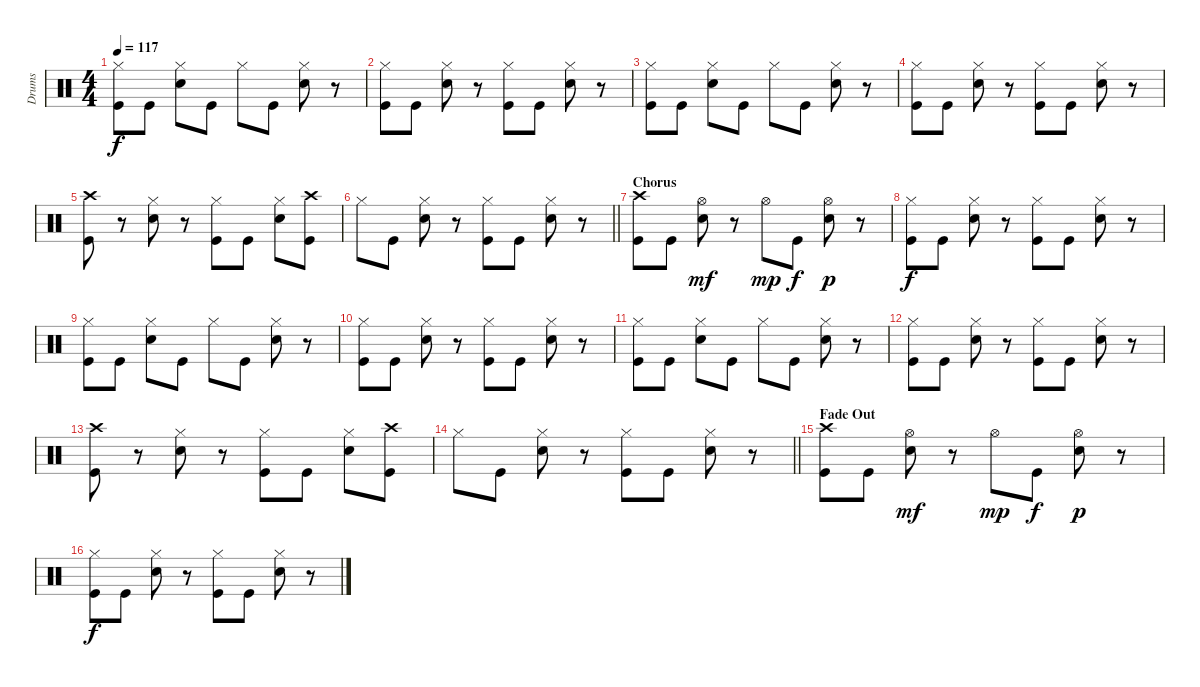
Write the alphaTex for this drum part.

\track ("Drums" "Drums") {instrument percussion}
\staff {score}
\articulation defaults
\ts (4 4)
\tempo 117
\clef neutral
\ks c
("Hi-Hat (closed)" "Kick (hit)").8{dy f} "Kick (hit)".8 ("Hi-Hat (closed)" "Snare (hit) 2").8 "Kick (hit)".8 "Hi-Hat (closed)".8 "Kick (hit)".8 ("Hi-Hat (closed)" "Snare (hit) 2").8 r.8 |
("Hi-Hat (closed)" "Kick (hit)").8 "Kick (hit)".8 ("Hi-Hat (closed)" "Snare (hit) 2").8 r.8 ("Hi-Hat (closed)" "Kick (hit)").8 "Kick (hit)".8 ("Hi-Hat (closed)" "Snare (hit) 2").8 r.8 |
("Hi-Hat (closed)" "Kick (hit)").8 "Kick (hit)".8 ("Hi-Hat (closed)" "Snare (hit) 2").8 "Kick (hit)".8 "Hi-Hat (closed)".8 "Kick (hit)".8 ("Hi-Hat (closed)" "Snare (hit) 2").8 r.8 |
("Hi-Hat (closed)" "Kick (hit)").8 "Kick (hit)".8 ("Hi-Hat (closed)" "Snare (hit) 2").8 r.8 ("Hi-Hat (closed)" "Kick (hit)").8 "Kick (hit)".8 ("Hi-Hat (closed)" "Snare (hit) 2").8 r.8 |
("Crash high (hit)" "Kick (hit)").8 r.8 ("Hi-Hat (closed)" "Snare (hit) 2").8 r.8 ("Hi-Hat (closed)" "Kick (hit)").8 "Kick (hit)".8 ("Hi-Hat (closed)" "Snare (hit) 2").8 ("Crash high (hit)" "Kick (hit)").8 |
\barLineRight lightlight "Hi-Hat (closed)".8 "Kick (hit)".8
("Hi-Hat (closed)" "Snare (hit) 2").8 r.8 ("Hi-Hat (closed)" "Kick (hit)").8 "Kick (hit)".8 ("Hi-Hat (closed)" "Snare (hit) 2").8 r.8 |
\section ("" "Chorus")
("Crash high (hit)" "Kick (hit)").8 "Kick (hit)".8 ("Hi-Hat (open)" "Snare (hit) 2").8{dy mf} r.8 "Hi-Hat (open)".8{dy mp} "Kick (hit)".8{dy f} ("Hi-Hat (open)" "Snare (hit) 2").8{dy p} r.8 |
("Hi-Hat (closed)" "Kick (hit)").8{dy f} "Kick (hit)".8 ("Hi-Hat (closed)" "Snare (hit) 2").8 r.8 ("Hi-Hat (closed)" "Kick (hit)").8 "Kick (hit)".8 ("Hi-Hat (closed)" "Snare (hit) 2").8 r.8 |
("Hi-Hat (closed)" "Kick (hit)").8 "Kick (hit)".8 ("Hi-Hat (closed)" "Snare (hit) 2").8 "Kick (hit)".8 "Hi-Hat (closed)".8 "Kick (hit)".8 ("Hi-Hat (closed)" "Snare (hit) 2").8 r.8 |
("Hi-Hat (closed)" "Kick (hit)").8 "Kick (hit)".8 ("Hi-Hat (closed)" "Snare (hit) 2").8 r.8 ("Hi-Hat (closed)" "Kick (hit)").8 "Kick (hit)".8 ("Hi-Hat (closed)" "Snare (hit) 2").8 r.8 |
("Hi-Hat (closed)" "Kick (hit)").8 "Kick (hit)".8 ("Hi-Hat (closed)" "Snare (hit) 2").8 "Kick (hit)".8 "Hi-Hat (closed)".8 "Kick (hit)".8 ("Hi-Hat (closed)" "Snare (hit) 2").8 r.8 |
("Hi-Hat (closed)" "Kick (hit)").8 "Kick (hit)".8 ("Hi-Hat (closed)" "Snare (hit) 2").8 r.8 ("Hi-Hat (closed)" "Kick (hit)").8 "Kick (hit)".8 ("Hi-Hat (closed)" "Snare (hit) 2").8 r.8 |
("Crash high (hit)" "Kick (hit)").8 r.8 ("Hi-Hat (closed)" "Snare (hit) 2").8 r.8 ("Hi-Hat (closed)" "Kick (hit)").8 "Kick (hit)".8 ("Hi-Hat (closed)" "Snare (hit) 2").8 ("Crash high (hit)" "Kick (hit)").8 |
\barLineRight lightlight "Hi-Hat (closed)".8 "Kick (hit)".8
("Hi-Hat (closed)" "Snare (hit) 2").8 r.8 ("Hi-Hat (closed)" "Kick (hit)").8 "Kick (hit)".8 ("Hi-Hat (closed)" "Snare (hit) 2").8 r.8 |
\section ("" "Fade Out")
("Crash high (hit)" "Kick (hit)").8 "Kick (hit)".8 ("Hi-Hat (open)" "Snare (hit) 2").8{dy mf} r.8 "Hi-Hat (open)".8{dy mp} "Kick (hit)".8{dy f} ("Hi-Hat (open)" "Snare (hit) 2").8{dy p} r.8 |
("Hi-Hat (closed)" "Kick (hit)").8{dy f} "Kick (hit)".8 ("Hi-Hat (closed)" "Snare (hit) 2").8 r.8 ("Hi-Hat (closed)" "Kick (hit)").8 "Kick (hit)".8 ("Hi-Hat (closed)" "Snare (hit) 2").8 r.8
